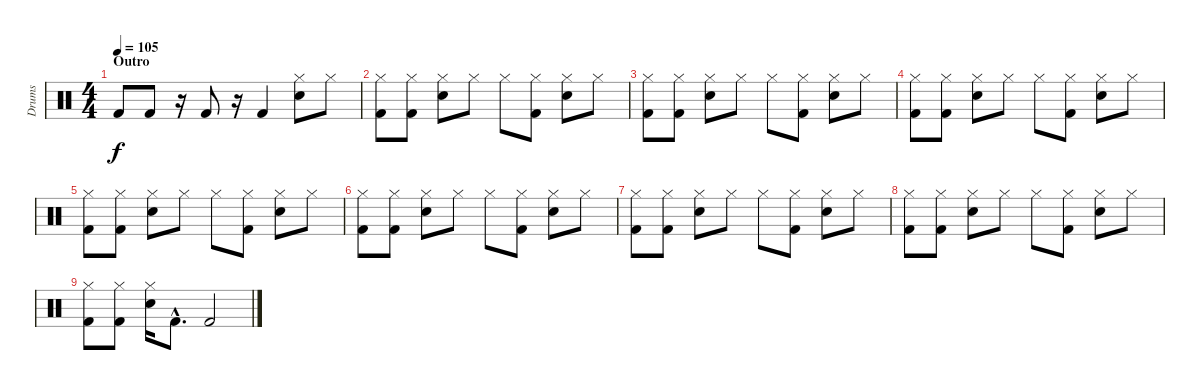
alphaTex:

\track ("Drums" "Drums") {instrument percussion}
\staff {score}
\articulation defaults
\ts (4 4)
\section ("" "Outro")
\tempo 105
\clef neutral
\ks c "Kick (hit) 2".8{dy f} "Kick (hit) 2".8
r.16 "Kick (hit) 2".8 r.16 "Kick (hit) 2".4 ("Hi-Hat (closed)" "Snare (hit) 2").8 "Hi-Hat (closed)".8 |
("Hi-Hat (closed)" "Kick (hit) 2").8 ("Hi-Hat (closed)" "Kick (hit) 2").8 ("Hi-Hat (closed)" "Snare (hit) 2").8 "Hi-Hat (closed)".8 "Hi-Hat (closed)".8 ("Hi-Hat (closed)" "Kick (hit) 2").8 ("Hi-Hat (closed)" "Snare (hit) 2").8 "Hi-Hat (closed)".8 |
("Hi-Hat (closed)" "Kick (hit) 2").8 ("Hi-Hat (closed)" "Kick (hit) 2").8 ("Hi-Hat (closed)" "Snare (hit) 2").8 "Hi-Hat (closed)".8 "Hi-Hat (closed)".8 ("Hi-Hat (closed)" "Kick (hit) 2").8 ("Hi-Hat (closed)" "Snare (hit) 2").8 "Hi-Hat (closed)".8 |
("Hi-Hat (closed)" "Kick (hit) 2").8 ("Hi-Hat (closed)" "Kick (hit) 2").8 ("Hi-Hat (closed)" "Snare (hit) 2").8 "Hi-Hat (closed)".8 "Hi-Hat (closed)".8 ("Hi-Hat (closed)" "Kick (hit) 2").8 ("Hi-Hat (closed)" "Snare (hit) 2").8 "Hi-Hat (closed)".8 |
("Hi-Hat (closed)" "Kick (hit) 2").8 ("Hi-Hat (closed)" "Kick (hit) 2").8 ("Hi-Hat (closed)" "Snare (hit) 2").8 "Hi-Hat (closed)".8 "Hi-Hat (closed)".8 ("Hi-Hat (closed)" "Kick (hit) 2").8 ("Hi-Hat (closed)" "Snare (hit) 2").8 "Hi-Hat (closed)".8 |
("Hi-Hat (closed)" "Kick (hit) 2").8 ("Hi-Hat (closed)" "Kick (hit) 2").8 ("Hi-Hat (closed)" "Snare (hit) 2").8 "Hi-Hat (closed)".8 "Hi-Hat (closed)".8 ("Hi-Hat (closed)" "Kick (hit) 2").8 ("Hi-Hat (closed)" "Snare (hit) 2").8 "Hi-Hat (closed)".8 |
("Hi-Hat (closed)" "Kick (hit) 2").8 ("Hi-Hat (closed)" "Kick (hit) 2").8 ("Hi-Hat (closed)" "Snare (hit) 2").8 "Hi-Hat (closed)".8 "Hi-Hat (closed)".8 ("Hi-Hat (closed)" "Kick (hit) 2").8 ("Hi-Hat (closed)" "Snare (hit) 2").8 "Hi-Hat (closed)".8 |
("Hi-Hat (closed)" "Kick (hit) 2").8 ("Hi-Hat (closed)" "Kick (hit) 2").8 ("Hi-Hat (closed)" "Snare (hit) 2").8 "Hi-Hat (closed)".8 "Hi-Hat (closed)".8 ("Hi-Hat (closed)" "Kick (hit) 2").8 ("Hi-Hat (closed)" "Snare (hit) 2").8 "Hi-Hat (closed)".8 |
("Hi-Hat (closed)" "Kick (hit) 2").8 ("Hi-Hat (closed)" "Kick (hit) 2").8 ("Hi-Hat (closed)" "Snare (hit) 2").16 "Kick (hit) 2"{hac}.8{d} "Kick (hit) 2".2
